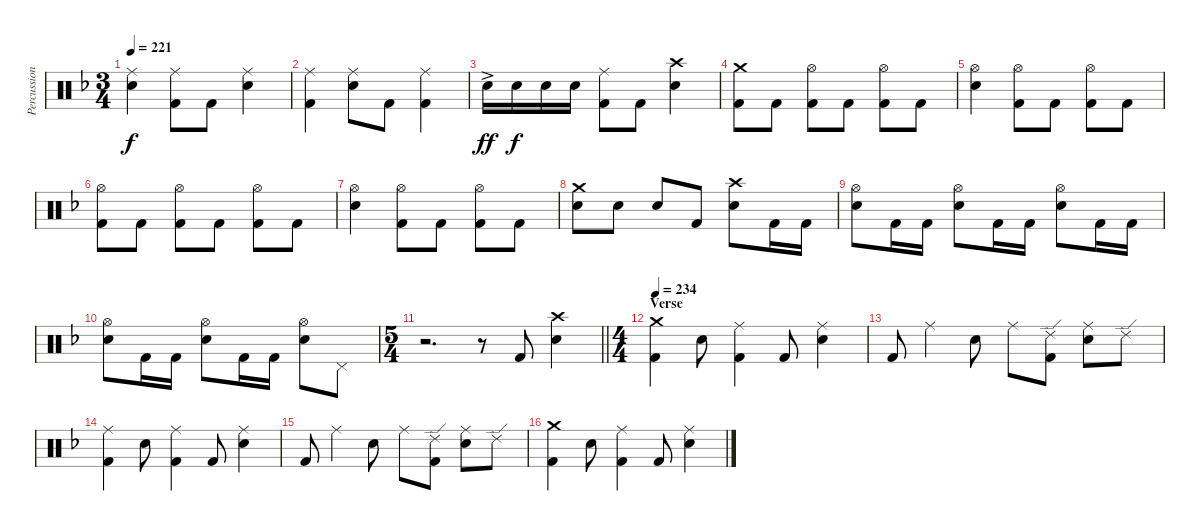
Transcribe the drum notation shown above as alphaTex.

\track ("Percussion" "Percussion") {instrument percussion}
\staff {score}
\articulation defaults
\ts (3 4)
\tempo 221
\clef neutral
\ks f
("Ride (middle)" "Electric Snare (hit)").4{dy f} ("Ride (middle)" "Kick (hit) 2").8 "Kick (hit) 2".8 ("Ride (middle)" "Electric Snare (hit)").4 |
("Ride (middle)" "Kick (hit) 2").4 ("Ride (middle)" "Electric Snare (hit)").8 "Kick (hit) 2".8 ("Ride (middle)" "Kick (hit) 2").4 |
"Electric Snare (hit)"{ac}.16{dy ff} "Electric Snare (hit)".16{dy f} "Electric Snare (hit)".16 "Electric Snare (hit)".16 ("Ride (middle)" "Kick (hit) 2").8 "Kick (hit) 2".8 ("Crash high (hit)" "Electric Snare (hit)").4 |
("Crash medium (hit)" "Kick (hit) 2").8 "Kick (hit) 2".8 ("Hi-Hat (open)" "Kick (hit) 2").8 "Kick (hit) 2".8 ("Hi-Hat (open)" "Kick (hit) 2").8 "Kick (hit) 2".8 |
("Hi-Hat (open)" "Electric Snare (hit)").4 ("Hi-Hat (open)" "Kick (hit) 2").8 "Kick (hit) 2".8 ("Hi-Hat (open)" "Kick (hit) 2").8 "Kick (hit) 2".8 |
("Hi-Hat (open)" "Kick (hit) 2").8 "Kick (hit) 2".8 ("Hi-Hat (open)" "Kick (hit) 2").8 "Kick (hit) 2".8 ("Hi-Hat (open)" "Kick (hit) 2").8 "Kick (hit) 2".8 |
("Hi-Hat (open)" "Electric Snare (hit)").4 ("Hi-Hat (open)" "Kick (hit) 2").8 "Kick (hit) 2".8 ("Hi-Hat (open)" "Kick (hit) 2").8 "Kick (hit) 2".8 |
("Crash medium (hit)" "Electric Snare (hit)").8 "Electric Snare (hit)".8 "Electric Snare (hit)".8 "Kick (hit) 2".8 ("Crash high (hit)" "Electric Snare (hit)").8 "Kick (hit) 2".16 "Kick (hit) 2".16 |
("Hi-Hat (open)" "Electric Snare (hit)").8 "Kick (hit) 2".16 "Kick (hit) 2".16 ("Hi-Hat (open)" "Electric Snare (hit)").8 "Kick (hit) 2".16 "Kick (hit) 2".16 ("Hi-Hat (open)" "Electric Snare (hit)").8 "Kick (hit) 2".16 "Kick (hit) 2".16 |
("Hi-Hat (open)" "Electric Snare (hit)").8 "Kick (hit) 2".16 "Kick (hit) 2".16 ("Hi-Hat (open)" "Electric Snare (hit)").8 "Kick (hit) 2".16 "Kick (hit) 2".16 ("Hi-Hat (open)" "Electric Snare (hit)").8 "Pedal Hi-Hat (hit)".8 |
\ts (5 4)
\barLineRight lightlight
r.2{d} r.8 "Kick (hit) 2".8 ("Crash high (hit)" "Electric Snare (hit)").4 |
\ts (4 4)
\section ("" "Verse")
\tempo 234
("Crash medium (hit)" "Kick (hit) 2").4 "Electric Snare (hit)".8 ("Ride (middle)" "Kick (hit) 2").4 "Kick (hit) 2".8 ("Ride (middle)" "Electric Snare (hit)").4 |
"Kick (hit) 2".8 "Ride (middle)".4 "Electric Snare (hit)".8 "Ride (middle)".8 ("Ride (edge) 2" "Kick (hit) 2").8 ("Ride (middle)" "Electric Snare (hit)").8 "Ride (edge) 2".8 |
("Ride (middle)" "Kick (hit) 2").4 "Electric Snare (hit)".8 ("Ride (middle)" "Kick (hit) 2").4 "Kick (hit) 2".8 ("Ride (middle)" "Electric Snare (hit)").4 |
"Kick (hit) 2".8 "Ride (middle)".4 "Electric Snare (hit)".8 "Ride (middle)".8 ("Ride (edge) 2" "Kick (hit) 2").8 ("Ride (middle)" "Electric Snare (hit)").8 "Ride (edge) 2".8 |
("Crash medium (hit)" "Kick (hit) 2").4 "Electric Snare (hit)".8 ("Ride (middle)" "Kick (hit) 2").4 "Kick (hit) 2".8 ("Ride (middle)" "Electric Snare (hit)").4
